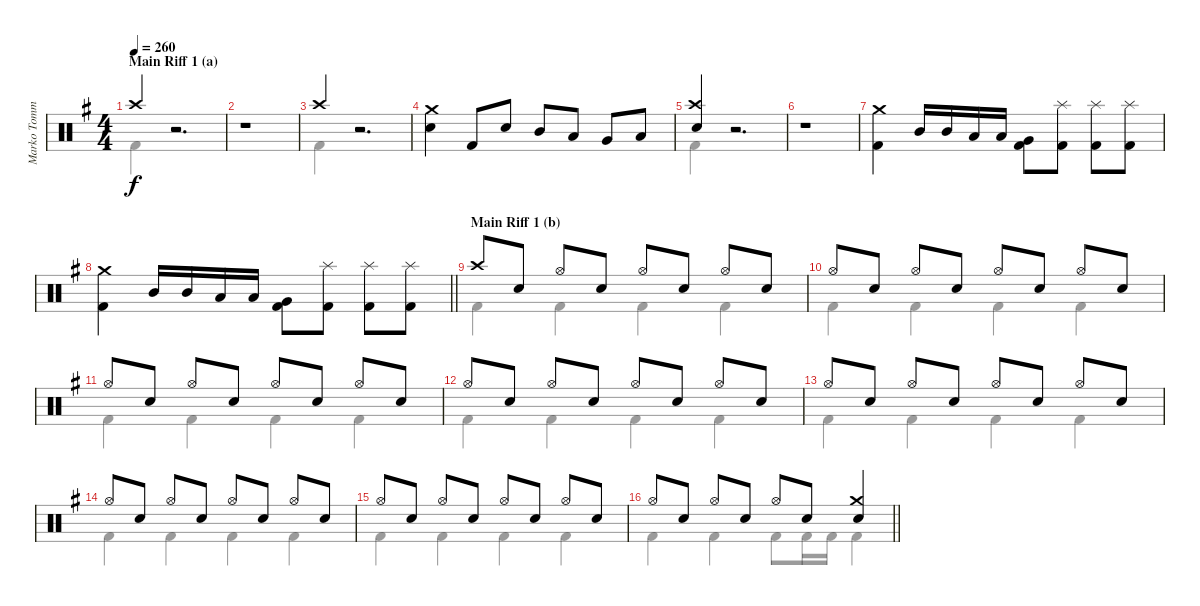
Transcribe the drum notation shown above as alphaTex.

\track ("Marko Tommila (drums)" "Marko Tomm") {instrument percussion}
\staff {score}
\articulation defaults
\voice
\ts (4 4)
\section ("" "Main Riff 1 (a)")
\tempo 260
\clef neutral
\ks eminor "Crash high (hit)".4{dy f}
r.2{d} |
r.1 |
"Crash high (hit)".4 r.2{d} |
("Electric Snare (hit)" "Crash medium (hit)").4 "Kick (hit) 2".8 "Electric Snare (hit)".8 "Mid Tom (hit)".8 "Low Tom (hit)".8 "Very Low Tom (hit)".8 "Low Floor Tom (hit)".8 |
("Crash high (hit)" "Electric Snare (hit)").4 r.2{d} |
r.1 |
("Crash medium (hit)" "Kick (hit) 2").4 "Mid Tom (hit)".16 "Mid Tom (hit)".16 "Low Tom (hit)".16 "Low Tom (hit)".16 ("Very Low Tom (hit)" "Kick (hit) 2").8 ("Splash (hit)" "Kick (hit) 2").8 ("Splash (hit)" "Kick (hit) 2").8 ("Splash (hit)" "Kick (hit) 2").8 |
\barLineRight lightlight
("Crash medium (hit)" "Kick (hit) 2").4 "Mid Tom (hit)".16 "Mid Tom (hit)".16 "Low Tom (hit)".16 "Low Tom (hit)".16 ("Very Low Tom (hit)" "Kick (hit) 2").8 ("Splash (hit)" "Kick (hit) 2").8 ("Splash (hit)" "Kick (hit) 2").8 ("Splash (hit)" "Kick (hit) 2").8 |
\section ("" "Main Riff 1 (b)")
"Crash high (hit)".8 "Electric Snare (hit)".8 "Hi-Hat (open)".8 "Electric Snare (hit)".8 "Hi-Hat (open)".8 "Electric Snare (hit)".8 "Hi-Hat (open)".8 "Electric Snare (hit)".8 |
"Hi-Hat (open)".8 "Electric Snare (hit)".8 "Hi-Hat (open)".8 "Electric Snare (hit)".8 "Hi-Hat (open)".8 "Electric Snare (hit)".8 "Hi-Hat (open)".8 "Electric Snare (hit)".8 |
"Hi-Hat (open)".8 "Electric Snare (hit)".8 "Hi-Hat (open)".8 "Electric Snare (hit)".8 "Hi-Hat (open)".8 "Electric Snare (hit)".8 "Hi-Hat (open)".8 "Electric Snare (hit)".8 |
"Hi-Hat (open)".8 "Electric Snare (hit)".8 "Hi-Hat (open)".8 "Electric Snare (hit)".8 "Hi-Hat (open)".8 "Electric Snare (hit)".8 "Hi-Hat (open)".8 "Electric Snare (hit)".8 |
"Hi-Hat (open)".8 "Electric Snare (hit)".8 "Hi-Hat (open)".8 "Electric Snare (hit)".8 "Hi-Hat (open)".8 "Electric Snare (hit)".8 "Hi-Hat (open)".8 "Electric Snare (hit)".8 |
"Hi-Hat (open)".8 "Electric Snare (hit)".8 "Hi-Hat (open)".8 "Electric Snare (hit)".8 "Hi-Hat (open)".8 "Electric Snare (hit)".8 "Hi-Hat (open)".8 "Electric Snare (hit)".8 |
"Hi-Hat (open)".8 "Electric Snare (hit)".8 "Hi-Hat (open)".8 "Electric Snare (hit)".8 "Hi-Hat (open)".8 "Electric Snare (hit)".8 "Hi-Hat (open)".8 "Electric Snare (hit)".8 |
\barLineRight lightlight "Hi-Hat (open)".8 "Electric Snare (hit)".8 "Hi-Hat (open)".8 "Electric Snare (hit)".8 "Hi-Hat (open)".8 "Electric Snare (hit)".8
("Crash medium (hit)" "Electric Snare (hit)").4
\voice
\clef neutral
\ottava regular
\simile none
\ks eminor "Kick (hit) 2".4{dy f}
r.2{d} |
|
"Kick (hit) 2".4 r.2{d} |
|
"Kick (hit) 2".4 r.2{d} |
|
|
\barLineRight lightlight
|
"Kick (hit) 2".4 "Kick (hit) 2".4 "Kick (hit) 2".4 "Kick (hit) 2".4 |
"Kick (hit) 2".4 "Kick (hit) 2".4 "Kick (hit) 2".4 "Kick (hit) 2".4 |
"Kick (hit) 2".4 "Kick (hit) 2".4 "Kick (hit) 2".4 "Kick (hit) 2".4 |
"Kick (hit) 2".4 "Kick (hit) 2".4 "Kick (hit) 2".4 "Kick (hit) 2".4 |
"Kick (hit) 2".4 "Kick (hit) 2".4 "Kick (hit) 2".4 "Kick (hit) 2".4 |
"Kick (hit) 2".4 "Kick (hit) 2".4 "Kick (hit) 2".4 "Kick (hit) 2".4 |
"Kick (hit) 2".4 "Kick (hit) 2".4 "Kick (hit) 2".4 "Kick (hit) 2".4 |
\barLineRight lightlight "Kick (hit) 2".4 "Kick (hit) 2".4 "Kick (hit) 2".8 "Kick (hit) 2".16 "Kick (hit) 2".16 "Kick (hit) 2".4
